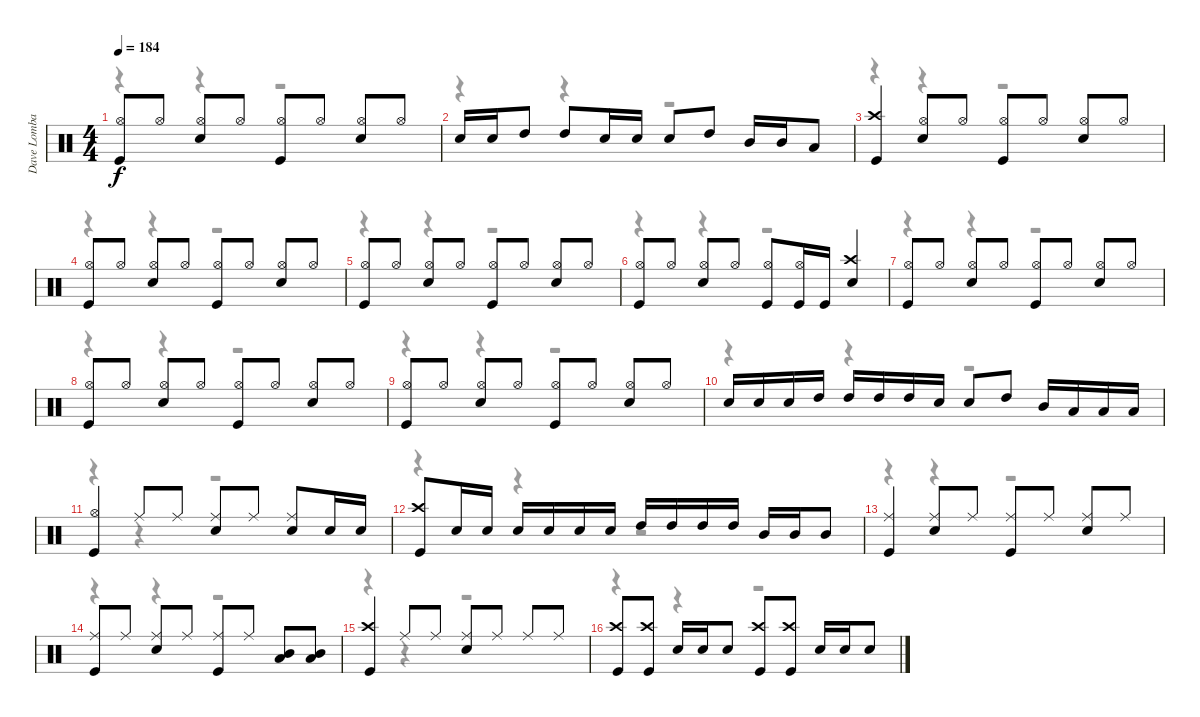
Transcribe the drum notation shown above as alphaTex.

\track ("Dave Lombardo" "Dave Lomba") {instrument percussion}
\staff {score}
\articulation defaults
\voice
\ts (4 4)
\tempo 184
\clef neutral
\ks c
("Hi-Hat (open)" "Kick (hit)").8{dy f} "Hi-Hat (open)".8 ("Hi-Hat (open)" "Snare (hit) 2").8 "Hi-Hat (open)".8 ("Hi-Hat (open)" "Kick (hit)").8 "Hi-Hat (open)".8 ("Hi-Hat (open)" "Snare (hit) 2").8 "Hi-Hat (open)".8 |
"Snare (hit) 2".16 "Snare (hit) 2".16 "High Tom (hit)".8 "High Tom (hit)".8 "Snare (hit) 2".16 "Snare (hit) 2".16 "Snare (hit) 2".8 "High Tom (hit)".8 "Mid Tom (hit)".16 "Mid Tom (hit)".16 "Low Tom (hit)".8 |
("Crash high (hit)" "Kick (hit)").4 ("Hi-Hat (open)" "Snare (hit) 2").8 "Hi-Hat (open)".8 ("Hi-Hat (open)" "Kick (hit)").8 "Hi-Hat (open)".8 ("Hi-Hat (open)" "Snare (hit) 2").8 "Hi-Hat (open)".8 |
("Hi-Hat (open)" "Kick (hit)").8 "Hi-Hat (open)".8 ("Hi-Hat (open)" "Snare (hit) 2").8 "Hi-Hat (open)".8 ("Hi-Hat (open)" "Kick (hit)").8 "Hi-Hat (open)".8 ("Hi-Hat (open)" "Snare (hit) 2").8 "Hi-Hat (open)".8 |
("Hi-Hat (open)" "Kick (hit)").8 "Hi-Hat (open)".8 ("Hi-Hat (open)" "Snare (hit) 2").8 "Hi-Hat (open)".8 ("Hi-Hat (open)" "Kick (hit)").8 "Hi-Hat (open)".8 ("Hi-Hat (open)" "Snare (hit) 2").8 "Hi-Hat (open)".8 |
("Hi-Hat (open)" "Kick (hit)").8 "Hi-Hat (open)".8 ("Hi-Hat (open)" "Snare (hit) 2").8 "Hi-Hat (open)".8 ("Hi-Hat (open)" "Kick (hit)").8 ("Hi-Hat (open)" "Kick (hit)").16 "Kick (hit)".16 ("Crash high (hit)" "Snare (hit) 2").4 |
("Hi-Hat (open)" "Kick (hit)").8 "Hi-Hat (open)".8 ("Hi-Hat (open)" "Snare (hit) 2").8 "Hi-Hat (open)".8 ("Hi-Hat (open)" "Kick (hit)").8 "Hi-Hat (open)".8 ("Hi-Hat (open)" "Snare (hit) 2").8 "Hi-Hat (open)".8 |
("Hi-Hat (open)" "Kick (hit)").8 "Hi-Hat (open)".8 ("Hi-Hat (open)" "Snare (hit) 2").8 "Hi-Hat (open)".8 ("Hi-Hat (open)" "Kick (hit)").8 "Hi-Hat (open)".8 ("Hi-Hat (open)" "Snare (hit) 2").8 "Hi-Hat (open)".8 |
("Hi-Hat (open)" "Kick (hit)").8 "Hi-Hat (open)".8 ("Hi-Hat (open)" "Snare (hit) 2").8 "Hi-Hat (open)".8 ("Hi-Hat (open)" "Kick (hit)").8 "Hi-Hat (open)".8 ("Hi-Hat (open)" "Snare (hit) 2").8 "Hi-Hat (open)".8 |
"Snare (hit) 2".16 "Snare (hit) 2".16 "Snare (hit) 2".16 "High Tom (hit)".16 "High Tom (hit)".16 "High Tom (hit)".16 "High Tom (hit)".16 "Snare (hit) 2".16 "Snare (hit) 2".8 "High Tom (hit)".8 "Mid Tom (hit)".16 "Low Tom (hit)".16 "Low Tom (hit)".16 "Low Tom (hit)".16 |
("Hi-Hat (open)" "Kick (hit)").4 "Ride (middle)".8 "Ride (middle)".8 ("Ride (middle)" "Snare (hit) 2").8 "Ride (middle)".8 ("Ride (middle)" "Snare (hit) 2").8 "Snare (hit) 2".16 "Snare (hit) 2".16 |
("Crash high (hit)" "Kick (hit)").8 "Snare (hit) 2".16 "Snare (hit) 2".16 "Snare (hit) 2".16 "Snare (hit) 2".16 "Snare (hit) 2".16 "Snare (hit) 2".16 "High Tom (hit)".16 "High Tom (hit)".16 "High Tom (hit)".16 "High Tom (hit)".16 "Mid Tom (hit)".16 "Mid Tom (hit)".16 "Mid Tom (hit)".8 |
("Ride (middle)" "Kick (hit)").4 ("Ride (middle)" "Snare (hit) 2").8 "Ride (middle)".8 ("Ride (middle)" "Kick (hit)").8 "Ride (middle)".8 ("Ride (middle)" "Snare (hit) 2").8 "Ride (middle)".8 |
("Ride (middle)" "Kick (hit)").8 "Ride (middle)".8 ("Ride (middle)" "Snare (hit) 2").8 "Ride (middle)".8 ("Ride (middle)" "Kick (hit)").8 "Ride (middle)".8 ("Low Tom (hit)" "Mid Tom (hit)").8 ("Low Tom (hit)" "Mid Tom (hit)").8 |
("Crash high (hit)" "Kick (hit)").4 "Ride (middle)".8 "Ride (middle)".8 ("Ride (middle)" "Snare (hit) 2").8 "Ride (middle)".8 "Ride (middle)".8 "Ride (middle)".8 |
("Crash high (hit)" "Kick (hit)").8 ("Crash high (hit)" "Kick (hit)").8 "Snare (hit) 2".16 "Snare (hit) 2".16 "Snare (hit) 2".8 ("Crash high (hit)" "Kick (hit)").8 ("Crash high (hit)" "Kick (hit)").8 "Snare (hit) 2".16 "Snare (hit) 2".16 "Snare (hit) 2".8
\voice
\clef neutral
\ottava regular
\simile none
\ks c
r.4{dy f} r.4 r.2 |
r.4 r.4 r.2 |
r.4 r.4 r.2 |
r.4 r.4 r.2 |
r.4 r.4 r.2 |
r.4 r.4 r.2 |
r.4 r.4 r.2 |
r.4 r.4 r.2 |
r.4 r.4 r.2 |
r.4 r.4 r.2 |
r.4 r.4 r.2 |
r.4 r.4 r.2 |
r.4 r.4 r.2 |
r.4 r.4 r.2 |
r.4 r.4 r.2 |
r.4 r.4 r.2
